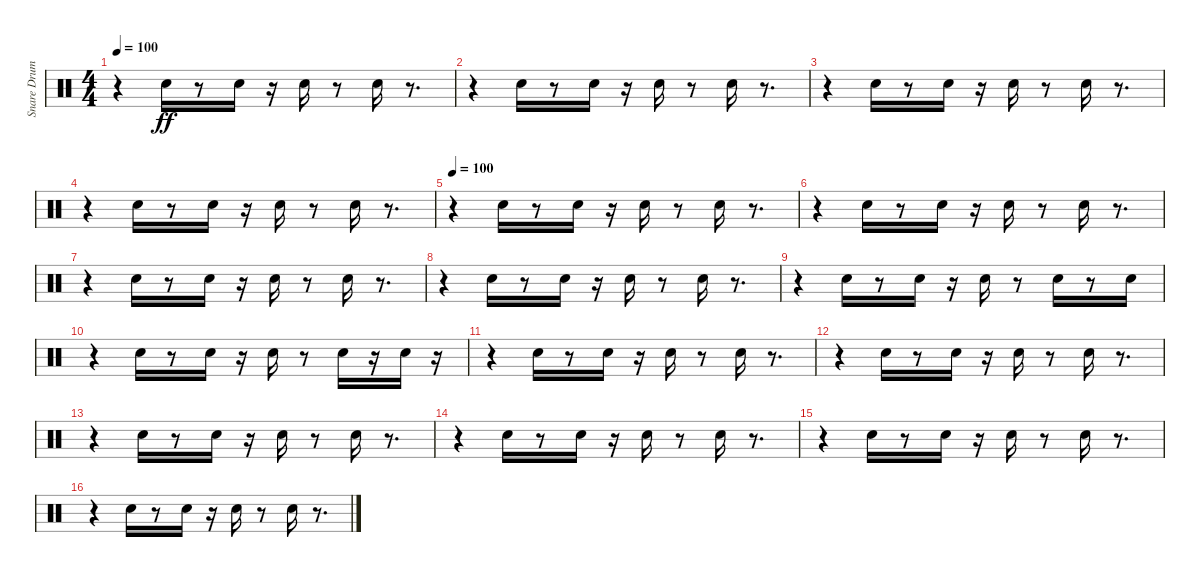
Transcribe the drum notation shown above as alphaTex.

\track ("Snare Drums" "Snare Drum") {instrument percussion}
\staff {score}
\articulation defaults
\ts (4 4)
\tempo 100
\clef neutral
\ks c
r.4{dy ff} "Snare (hit) 2".16 r.8 "Electric Snare (hit)".16 r.16 "Electric Snare (hit)".16 r.8 "Snare (hit) 2".16 r.8{d} |
r.4 "Snare (hit) 2".16 r.8 "Electric Snare (hit)".16 r.16 "Electric Snare (hit)".16 r.8 "Snare (hit) 2".16 r.8{d} |
r.4 "Snare (hit) 2".16 r.8 "Electric Snare (hit)".16 r.16 "Electric Snare (hit)".16 r.8 "Snare (hit) 2".16 r.8{d} |
r.4 "Snare (hit) 2".16 r.8 "Electric Snare (hit)".16 r.16 "Electric Snare (hit)".16 r.8 "Snare (hit) 2".16 r.8{d} |
\tempo 100
r.4 "Snare (hit) 2".16 r.8 "Electric Snare (hit)".16 r.16 "Electric Snare (hit)".16 r.8 "Snare (hit) 2".16 r.8{d} |
r.4 "Snare (hit) 2".16 r.8 "Electric Snare (hit)".16 r.16 "Electric Snare (hit)".16 r.8 "Snare (hit) 2".16 r.8{d} |
r.4 "Snare (hit) 2".16 r.8 "Electric Snare (hit)".16 r.16 "Electric Snare (hit)".16 r.8 "Snare (hit) 2".16 r.8{d} |
r.4 "Snare (hit) 2".16 r.8 "Electric Snare (hit)".16 r.16 "Electric Snare (hit)".16 r.8 "Snare (hit) 2".16 r.8{d} |
r.4 "Snare (hit) 2".16 r.8 "Electric Snare (hit)".16 r.16 "Electric Snare (hit)".16 r.8 "Snare (hit) 2".16 r.8 "Electric Snare (hit)".16 |
r.4 "Snare (hit) 2".16 r.8 "Electric Snare (hit)".16 r.16 "Electric Snare (hit)".16 r.8 "Snare (hit) 2".16 r.16 "Electric Snare (hit)".16 r.16 |
r.4 "Snare (hit) 2".16 r.8 "Electric Snare (hit)".16 r.16 "Electric Snare (hit)".16 r.8 "Snare (hit) 2".16 r.8{d} |
r.4 "Snare (hit) 2".16 r.8 "Electric Snare (hit)".16 r.16 "Electric Snare (hit)".16 r.8 "Snare (hit) 2".16 r.8{d} |
r.4 "Snare (hit) 2".16 r.8 "Electric Snare (hit)".16 r.16 "Electric Snare (hit)".16 r.8 "Snare (hit) 2".16 r.8{d} |
r.4 "Snare (hit) 2".16 r.8 "Electric Snare (hit)".16 r.16 "Electric Snare (hit)".16 r.8 "Snare (hit) 2".16 r.8{d} |
r.4 "Snare (hit) 2".16 r.8 "Electric Snare (hit)".16 r.16 "Electric Snare (hit)".16 r.8 "Snare (hit) 2".16 r.8{d} |
r.4 "Snare (hit) 2".16 r.8 "Electric Snare (hit)".16 r.16 "Electric Snare (hit)".16 r.8 "Snare (hit) 2".16 r.8{d}
